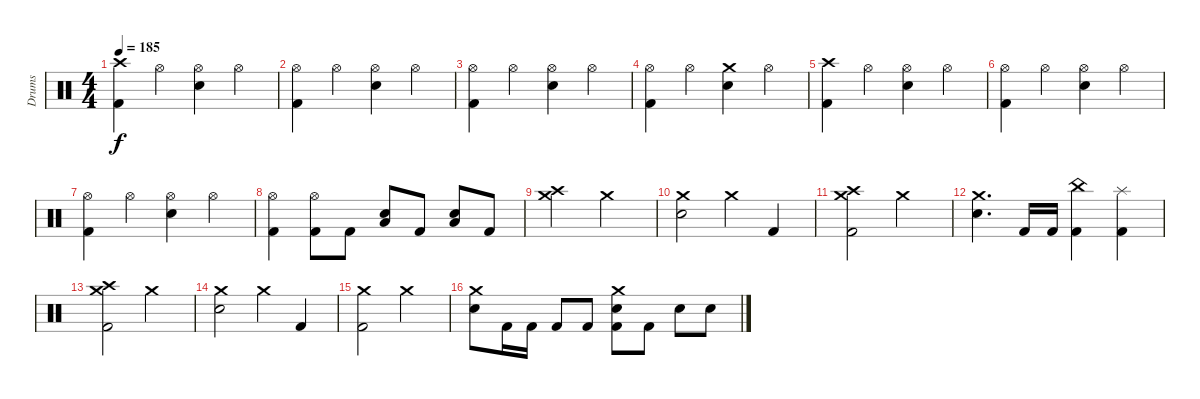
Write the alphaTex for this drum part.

\track ("Drums" "Drums") {instrument percussion}
\staff {score}
\articulation defaults
\ts (4 4)
\tempo 185
\clef neutral
\ks c
("Crash high (hit)" "Kick (hit) 2").4{dy f} "Hi-Hat (open)".4 ("Hi-Hat (open)" "Electric Snare (hit)").4 "Hi-Hat (open)".4 |
("Hi-Hat (open)" "Kick (hit) 2").4 "Hi-Hat (open)".4 ("Hi-Hat (open)" "Electric Snare (hit)").4 "Hi-Hat (open)".4 |
("Hi-Hat (open)" "Kick (hit) 2").4 "Hi-Hat (open)".4 ("Hi-Hat (open)" "Electric Snare (hit)").4 "Hi-Hat (open)".4 |
("Hi-Hat (open)" "Kick (hit) 2").4 "Hi-Hat (open)".4 ("Crash medium (hit)" "Electric Snare (hit)").4 "Hi-Hat (open)".4 |
("Crash high (hit)" "Kick (hit) 2").4 "Hi-Hat (open)".4 ("Hi-Hat (open)" "Electric Snare (hit)").4 "Hi-Hat (open)".4 |
("Hi-Hat (open)" "Kick (hit) 2").4 "Hi-Hat (open)".4 ("Hi-Hat (open)" "Electric Snare (hit)").4 "Hi-Hat (open)".4 |
("Hi-Hat (open)" "Kick (hit) 2").4 "Hi-Hat (open)".4 ("Hi-Hat (open)" "Electric Snare (hit)").4 "Hi-Hat (open)".4 |
("Hi-Hat (open)" "Kick (hit) 2").4 ("Hi-Hat (open)" "Kick (hit) 2").8 "Kick (hit) 2".8 ("Electric Snare (hit)" "Low Floor Tom (hit)").8 "Kick (hit) 2".8 ("Electric Snare (hit)" "Low Floor Tom (hit)").8 "Kick (hit) 2".8 |
("Crash medium (hit)" "Crash high (hit)").2 "Crash medium (hit)".2 |
("Crash medium (hit)" "Electric Snare (hit)").2 "Crash medium (hit)".4 "Kick (hit) 2".4 |
("Crash medium (hit)" "Crash high (hit)" "Kick (hit) 2").2 "Crash medium (hit)".2 |
("Crash medium (hit)" "Electric Snare (hit)").4{d} "Kick (hit) 2".16 "Kick (hit) 2".16 ("China (hit)" "Kick (hit) 2").4 ("Splash (hit)" "Kick (hit) 2").4 |
("Crash medium (hit)" "Crash high (hit)" "Kick (hit) 2").2 "Crash medium (hit)".2 |
("Crash medium (hit)" "Electric Snare (hit)").2 "Crash medium (hit)".4 "Kick (hit) 2".4 |
("Crash medium (hit)" "Kick (hit) 2").2 "Crash medium (hit)".2 |
("Crash medium (hit)" "Electric Snare (hit)").8 "Kick (hit) 2".16 "Kick (hit) 2".16 "Kick (hit) 2".8 "Kick (hit) 2".8 ("Crash medium (hit)" "Electric Snare (hit)" "Kick (hit) 2").8 "Kick (hit) 2".8 "Electric Snare (hit)".8 "Electric Snare (hit)".8
